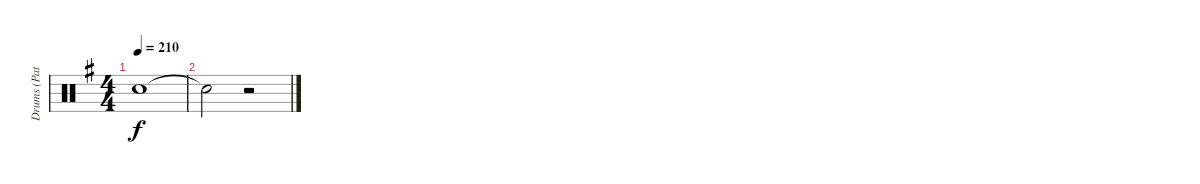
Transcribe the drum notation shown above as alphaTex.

\track ("Drums (Patrick Johansson)" "Drums (Pat") {instrument percussion}
\staff {score}
\articulation defaults
\ts (4 4)
\tempo 210
\clef neutral
\ks g "Snare (hit)"{t}.1{dy f}
|
"Snare (hit)"{t}.2 r.2
